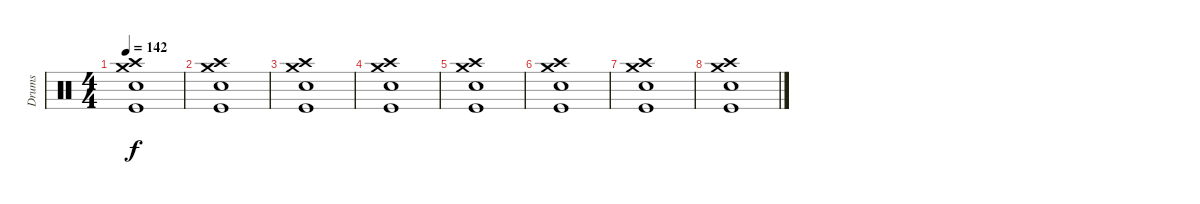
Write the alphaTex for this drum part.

\track ("Drums" "Drums") {instrument percussion}
\staff {score}
\articulation defaults
\ts (4 4)
\tempo 142
\clef neutral
\ks c
("Crash high (hit)" "Crash medium (hit)" "Snare (hit) 2" "Kick (hit)").1{dy f} |
("Crash high (hit)" "Crash medium (hit)" "Snare (hit) 2" "Kick (hit)").1 |
("Crash high (hit)" "Crash medium (hit)" "Snare (hit) 2" "Kick (hit)").1 |
("Crash high (hit)" "Crash medium (hit)" "Snare (hit) 2" "Kick (hit)").1 |
("Crash high (hit)" "Crash medium (hit)" "Snare (hit) 2" "Kick (hit)").1 |
("Crash high (hit)" "Crash medium (hit)" "Snare (hit) 2" "Kick (hit)").1 |
("Crash high (hit)" "Crash medium (hit)" "Snare (hit) 2" "Kick (hit)").1 |
("Crash high (hit)" "Crash medium (hit)" "Snare (hit) 2" "Kick (hit)").1
